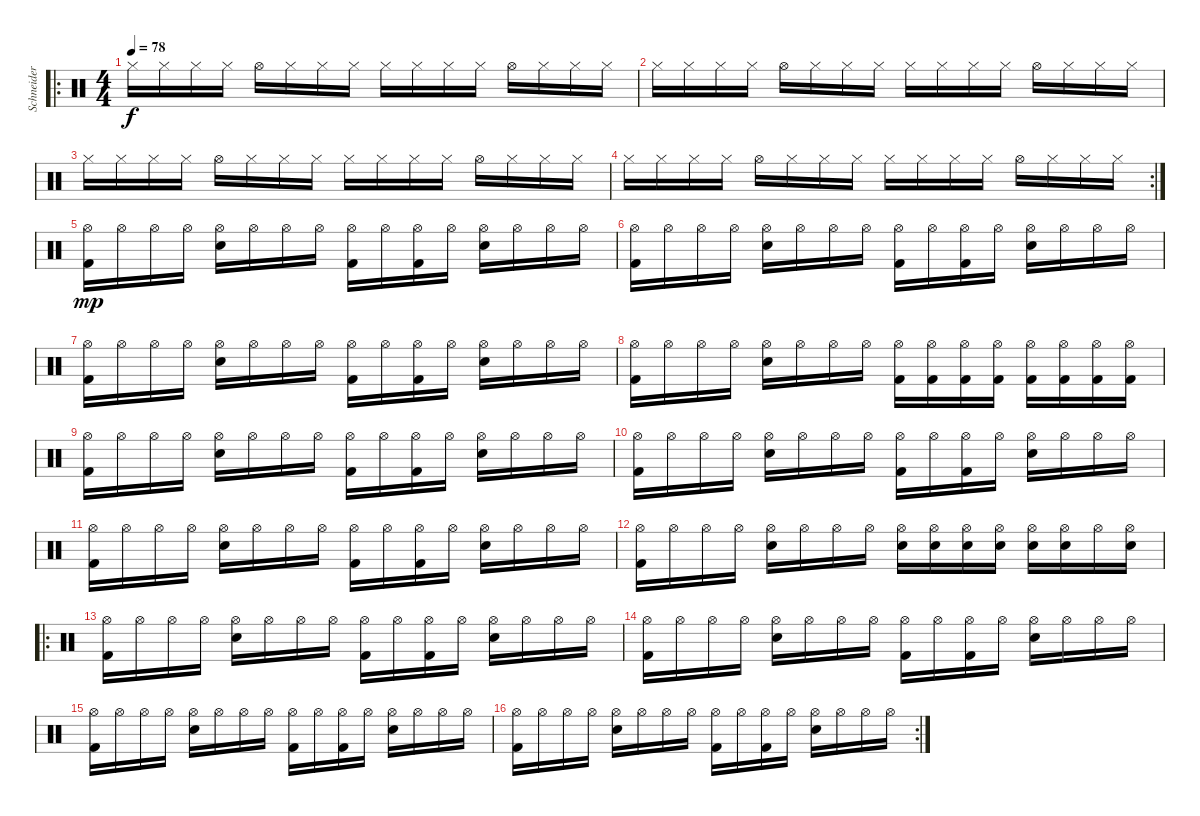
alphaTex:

\track ("Schneider" "Schneider") {instrument percussion}
\staff {score}
\articulation defaults
\ro
\ts (4 4)
\tempo 78
\clef neutral
\ks c "Hi-Hat (closed)".16{dy f} "Hi-Hat (closed)".16 "Hi-Hat (closed)".16 "Hi-Hat (closed)".16 "Hi-Hat (open)".16 "Hi-Hat (closed)".16 "Hi-Hat (closed)".16 "Hi-Hat (closed)".16 "Hi-Hat (closed)".16 "Hi-Hat (closed)".16 "Hi-Hat (closed)".16 "Hi-Hat (closed)".16 "Hi-Hat (open)".16 "Hi-Hat (closed)".16 "Hi-Hat (closed)".16 "Hi-Hat (closed)".16
|
"Hi-Hat (closed)".16 "Hi-Hat (closed)".16 "Hi-Hat (closed)".16 "Hi-Hat (closed)".16 "Hi-Hat (open)".16 "Hi-Hat (closed)".16 "Hi-Hat (closed)".16 "Hi-Hat (closed)".16 "Hi-Hat (closed)".16 "Hi-Hat (closed)".16 "Hi-Hat (closed)".16 "Hi-Hat (closed)".16 "Hi-Hat (open)".16 "Hi-Hat (closed)".16 "Hi-Hat (closed)".16 "Hi-Hat (closed)".16 |
"Hi-Hat (closed)".16 "Hi-Hat (closed)".16 "Hi-Hat (closed)".16 "Hi-Hat (closed)".16 "Hi-Hat (open)".16 "Hi-Hat (closed)".16 "Hi-Hat (closed)".16 "Hi-Hat (closed)".16 "Hi-Hat (closed)".16 "Hi-Hat (closed)".16 "Hi-Hat (closed)".16 "Hi-Hat (closed)".16 "Hi-Hat (open)".16 "Hi-Hat (closed)".16 "Hi-Hat (closed)".16 "Hi-Hat (closed)".16 |
\rc 2 "Hi-Hat (closed)".16 "Hi-Hat (closed)".16 "Hi-Hat (closed)".16 "Hi-Hat (closed)".16 "Hi-Hat (open)".16 "Hi-Hat (closed)".16 "Hi-Hat (closed)".16 "Hi-Hat (closed)".16 "Hi-Hat (closed)".16 "Hi-Hat (closed)".16 "Hi-Hat (closed)".16 "Hi-Hat (closed)".16 "Hi-Hat (open)".16 "Hi-Hat (closed)".16 "Hi-Hat (closed)".16 "Hi-Hat (closed)".16
|
("Kick (hit) 2" "Hi-Hat (open)").16{dy mp} "Hi-Hat (open)".16 "Hi-Hat (open)".16 "Hi-Hat (open)".16 ("Electric Snare (hit)" "Hi-Hat (open)").16 "Hi-Hat (open)".16 "Hi-Hat (open)".16 "Hi-Hat (open)".16 ("Kick (hit) 2" "Hi-Hat (open)").16 "Hi-Hat (open)".16 ("Kick (hit) 2" "Hi-Hat (open)").16 "Hi-Hat (open)".16 ("Electric Snare (hit)" "Hi-Hat (open)").16 "Hi-Hat (open)".16 "Hi-Hat (open)".16 "Hi-Hat (open)".16 |
("Kick (hit) 2" "Hi-Hat (open)").16 "Hi-Hat (open)".16 "Hi-Hat (open)".16 "Hi-Hat (open)".16 ("Electric Snare (hit)" "Hi-Hat (open)").16 "Hi-Hat (open)".16 "Hi-Hat (open)".16 "Hi-Hat (open)".16 ("Kick (hit) 2" "Hi-Hat (open)").16 "Hi-Hat (open)".16 ("Kick (hit) 2" "Hi-Hat (open)").16 "Hi-Hat (open)".16 ("Electric Snare (hit)" "Hi-Hat (open)").16 "Hi-Hat (open)".16 "Hi-Hat (open)".16 "Hi-Hat (open)".16 |
("Kick (hit) 2" "Hi-Hat (open)").16 "Hi-Hat (open)".16 "Hi-Hat (open)".16 "Hi-Hat (open)".16 ("Electric Snare (hit)" "Hi-Hat (open)").16 "Hi-Hat (open)".16 "Hi-Hat (open)".16 "Hi-Hat (open)".16 ("Kick (hit) 2" "Hi-Hat (open)").16 "Hi-Hat (open)".16 ("Kick (hit) 2" "Hi-Hat (open)").16 "Hi-Hat (open)".16 ("Electric Snare (hit)" "Hi-Hat (open)").16 "Hi-Hat (open)".16 "Hi-Hat (open)".16 "Hi-Hat (open)".16 |
("Kick (hit) 2" "Hi-Hat (open)").16 "Hi-Hat (open)".16 "Hi-Hat (open)".16 "Hi-Hat (open)".16 ("Electric Snare (hit)" "Hi-Hat (open)").16 "Hi-Hat (open)".16 "Hi-Hat (open)".16 "Hi-Hat (open)".16 ("Kick (hit) 2" "Hi-Hat (open)").16 ("Kick (hit) 2" "Hi-Hat (open)").16 ("Kick (hit) 2" "Hi-Hat (open)").16 ("Kick (hit) 2" "Hi-Hat (open)").16 ("Kick (hit) 2" "Hi-Hat (open)").16 ("Kick (hit) 2" "Hi-Hat (open)").16 ("Kick (hit) 2" "Hi-Hat (open)").16 ("Kick (hit) 2" "Hi-Hat (open)").16 |
("Kick (hit) 2" "Hi-Hat (open)").16 "Hi-Hat (open)".16 "Hi-Hat (open)".16 "Hi-Hat (open)".16 ("Electric Snare (hit)" "Hi-Hat (open)").16 "Hi-Hat (open)".16 "Hi-Hat (open)".16 "Hi-Hat (open)".16 ("Kick (hit) 2" "Hi-Hat (open)").16 "Hi-Hat (open)".16 ("Kick (hit) 2" "Hi-Hat (open)").16 "Hi-Hat (open)".16 ("Electric Snare (hit)" "Hi-Hat (open)").16 "Hi-Hat (open)".16 "Hi-Hat (open)".16 "Hi-Hat (open)".16 |
("Kick (hit) 2" "Hi-Hat (open)").16 "Hi-Hat (open)".16 "Hi-Hat (open)".16 "Hi-Hat (open)".16 ("Electric Snare (hit)" "Hi-Hat (open)").16 "Hi-Hat (open)".16 "Hi-Hat (open)".16 "Hi-Hat (open)".16 ("Kick (hit) 2" "Hi-Hat (open)").16 "Hi-Hat (open)".16 ("Kick (hit) 2" "Hi-Hat (open)").16 "Hi-Hat (open)".16 ("Electric Snare (hit)" "Hi-Hat (open)").16 "Hi-Hat (open)".16 "Hi-Hat (open)".16 "Hi-Hat (open)".16 |
("Kick (hit) 2" "Hi-Hat (open)").16 "Hi-Hat (open)".16 "Hi-Hat (open)".16 "Hi-Hat (open)".16 ("Electric Snare (hit)" "Hi-Hat (open)").16 "Hi-Hat (open)".16 "Hi-Hat (open)".16 "Hi-Hat (open)".16 ("Kick (hit) 2" "Hi-Hat (open)").16 "Hi-Hat (open)".16 ("Kick (hit) 2" "Hi-Hat (open)").16 "Hi-Hat (open)".16 ("Electric Snare (hit)" "Hi-Hat (open)").16 "Hi-Hat (open)".16 "Hi-Hat (open)".16 "Hi-Hat (open)".16 |
("Kick (hit) 2" "Hi-Hat (open)").16 "Hi-Hat (open)".16 "Hi-Hat (open)".16 "Hi-Hat (open)".16 ("Electric Snare (hit)" "Hi-Hat (open)").16 "Hi-Hat (open)".16 "Hi-Hat (open)".16 "Hi-Hat (open)".16 ("Electric Snare (hit)" "Hi-Hat (open)").16 ("Electric Snare (hit)" "Hi-Hat (open)").16 ("Electric Snare (hit)" "Hi-Hat (open)").16 ("Electric Snare (hit)" "Hi-Hat (open)").16 ("Electric Snare (hit)" "Hi-Hat (open)").16 ("Electric Snare (hit)" "Hi-Hat (open)").16 "Hi-Hat (open)".16 ("Electric Snare (hit)" "Hi-Hat (open)").16 |
\ro
("Kick (hit) 2" "Hi-Hat (open)").16 "Hi-Hat (open)".16 "Hi-Hat (open)".16 "Hi-Hat (open)".16 ("Electric Snare (hit)" "Hi-Hat (open)").16 "Hi-Hat (open)".16 "Hi-Hat (open)".16 "Hi-Hat (open)".16 ("Kick (hit) 2" "Hi-Hat (open)").16 "Hi-Hat (open)".16 ("Kick (hit) 2" "Hi-Hat (open)").16 "Hi-Hat (open)".16 ("Electric Snare (hit)" "Hi-Hat (open)").16 "Hi-Hat (open)".16 "Hi-Hat (open)".16 "Hi-Hat (open)".16 |
("Kick (hit) 2" "Hi-Hat (open)").16 "Hi-Hat (open)".16 "Hi-Hat (open)".16 "Hi-Hat (open)".16 ("Electric Snare (hit)" "Hi-Hat (open)").16 "Hi-Hat (open)".16 "Hi-Hat (open)".16 "Hi-Hat (open)".16 ("Kick (hit) 2" "Hi-Hat (open)").16 "Hi-Hat (open)".16 ("Kick (hit) 2" "Hi-Hat (open)").16 "Hi-Hat (open)".16 ("Electric Snare (hit)" "Hi-Hat (open)").16 "Hi-Hat (open)".16 "Hi-Hat (open)".16 "Hi-Hat (open)".16 |
("Kick (hit) 2" "Hi-Hat (open)").16 "Hi-Hat (open)".16 "Hi-Hat (open)".16 "Hi-Hat (open)".16 ("Electric Snare (hit)" "Hi-Hat (open)").16 "Hi-Hat (open)".16 "Hi-Hat (open)".16 "Hi-Hat (open)".16 ("Kick (hit) 2" "Hi-Hat (open)").16 "Hi-Hat (open)".16 ("Kick (hit) 2" "Hi-Hat (open)").16 "Hi-Hat (open)".16 ("Electric Snare (hit)" "Hi-Hat (open)").16 "Hi-Hat (open)".16 "Hi-Hat (open)".16 "Hi-Hat (open)".16 |
\rc 2
("Kick (hit) 2" "Hi-Hat (open)").16 "Hi-Hat (open)".16 "Hi-Hat (open)".16 "Hi-Hat (open)".16 ("Electric Snare (hit)" "Hi-Hat (open)").16 "Hi-Hat (open)".16 "Hi-Hat (open)".16 "Hi-Hat (open)".16 ("Kick (hit) 2" "Hi-Hat (open)").16 "Hi-Hat (open)".16 ("Kick (hit) 2" "Hi-Hat (open)").16 "Hi-Hat (open)".16 ("Electric Snare (hit)" "Hi-Hat (open)").16 "Hi-Hat (open)".16 "Hi-Hat (open)".16 "Hi-Hat (open)".16
